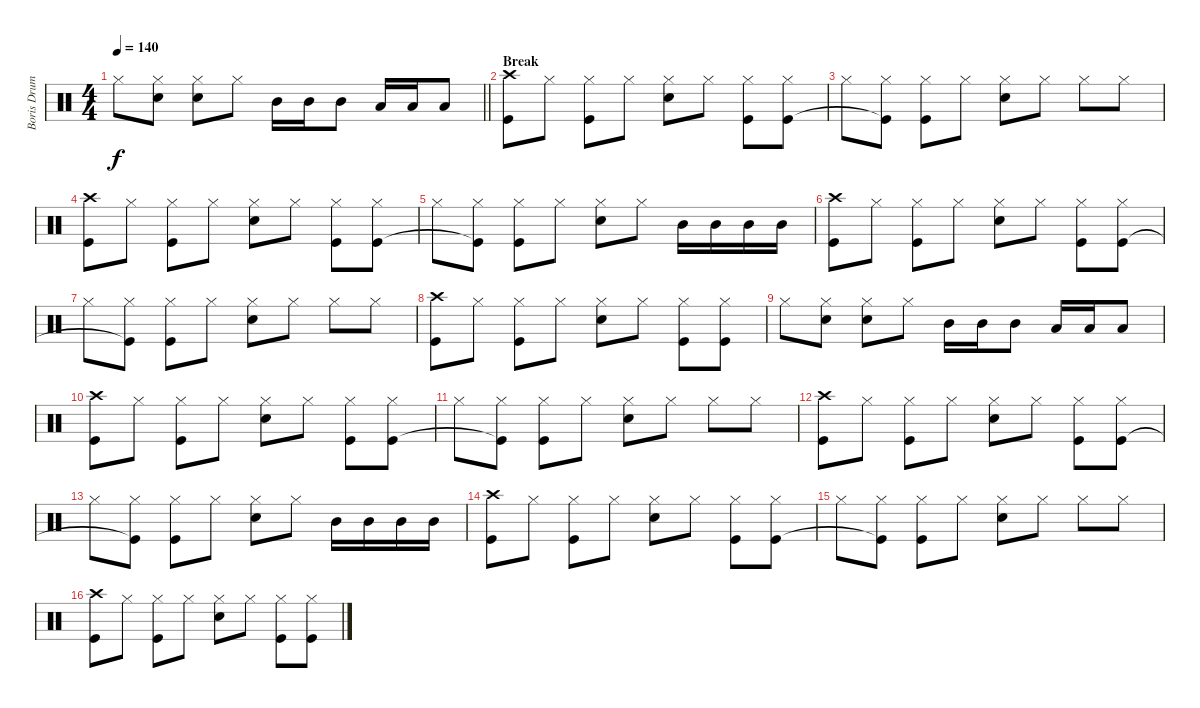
\track ("Boris Drums" "Boris Drum") {instrument percussion}
\staff {score}
\articulation defaults
\ts (4 4)
\tempo 140
\clef neutral
\barLineRight lightlight
\ks c "Hi-Hat (closed)".8{dy f}
("Hi-Hat (closed)" "Electric Snare (hit)").8 ("Hi-Hat (closed)" "Electric Snare (hit)").8 "Hi-Hat (closed)".8 "Mid Tom (hit)".16 "Mid Tom (hit)".16 "Mid Tom (hit)".8 "Low Tom (hit)".16 "Low Tom (hit)".16 "Low Tom (hit)".8 |
\section ("" "Break")
("Crash high (hit)" "Kick (hit)").8 "Hi-Hat (closed)".8 ("Hi-Hat (closed)" "Kick (hit)").8 "Hi-Hat (closed)".8 ("Hi-Hat (closed)" "Electric Snare (hit)").8 "Hi-Hat (closed)".8 ("Hi-Hat (closed)" "Kick (hit)").8 ("Hi-Hat (closed)" "Kick (hit)").8 |
"Hi-Hat (closed)".8 ("Hi-Hat (closed)" "Kick (hit)"{t}).8 ("Hi-Hat (closed)" "Kick (hit)").8 "Hi-Hat (closed)".8 ("Hi-Hat (closed)" "Electric Snare (hit)").8 "Hi-Hat (closed)".8 "Hi-Hat (closed)".8 "Hi-Hat (closed)".8 |
("Crash high (hit)" "Kick (hit)").8 "Hi-Hat (closed)".8 ("Hi-Hat (closed)" "Kick (hit)").8 "Hi-Hat (closed)".8 ("Hi-Hat (closed)" "Electric Snare (hit)").8 "Hi-Hat (closed)".8 ("Hi-Hat (closed)" "Kick (hit)").8 ("Hi-Hat (closed)" "Kick (hit)").8 |
"Hi-Hat (closed)".8 ("Hi-Hat (closed)" "Kick (hit)"{t}).8 ("Hi-Hat (closed)" "Kick (hit)").8 "Hi-Hat (closed)".8 ("Hi-Hat (closed)" "Electric Snare (hit)").8 "Hi-Hat (closed)".8 "Mid Tom (hit)".16 "Mid Tom (hit)".16 "Mid Tom (hit)".16 "Mid Tom (hit)".16 |
("Crash high (hit)" "Kick (hit)").8 "Hi-Hat (closed)".8 ("Hi-Hat (closed)" "Kick (hit)").8 "Hi-Hat (closed)".8 ("Hi-Hat (closed)" "Electric Snare (hit)").8 "Hi-Hat (closed)".8 ("Hi-Hat (closed)" "Kick (hit)").8 ("Hi-Hat (closed)" "Kick (hit)").8 |
"Hi-Hat (closed)".8 ("Hi-Hat (closed)" "Kick (hit)"{t}).8 ("Hi-Hat (closed)" "Kick (hit)").8 "Hi-Hat (closed)".8 ("Hi-Hat (closed)" "Electric Snare (hit)").8 "Hi-Hat (closed)".8 "Hi-Hat (closed)".8 "Hi-Hat (closed)".8 |
("Crash high (hit)" "Kick (hit)").8 "Hi-Hat (closed)".8 ("Hi-Hat (closed)" "Kick (hit)").8 "Hi-Hat (closed)".8 ("Hi-Hat (closed)" "Electric Snare (hit)").8 "Hi-Hat (closed)".8 ("Hi-Hat (closed)" "Kick (hit)").8 ("Hi-Hat (closed)" "Kick (hit)").8 |
"Hi-Hat (closed)".8 ("Hi-Hat (closed)" "Electric Snare (hit)").8 ("Hi-Hat (closed)" "Electric Snare (hit)").8 "Hi-Hat (closed)".8 "Mid Tom (hit)".16 "Mid Tom (hit)".16 "Mid Tom (hit)".8 "Low Tom (hit)".16 "Low Tom (hit)".16 "Low Tom (hit)".8 |
("Crash high (hit)" "Kick (hit)").8 "Hi-Hat (closed)".8 ("Hi-Hat (closed)" "Kick (hit)").8 "Hi-Hat (closed)".8 ("Hi-Hat (closed)" "Electric Snare (hit)").8 "Hi-Hat (closed)".8 ("Hi-Hat (closed)" "Kick (hit)").8 ("Hi-Hat (closed)" "Kick (hit)").8 |
"Hi-Hat (closed)".8 ("Hi-Hat (closed)" "Kick (hit)"{t}).8 ("Hi-Hat (closed)" "Kick (hit)").8 "Hi-Hat (closed)".8 ("Hi-Hat (closed)" "Electric Snare (hit)").8 "Hi-Hat (closed)".8 "Hi-Hat (closed)".8 "Hi-Hat (closed)".8 |
("Crash high (hit)" "Kick (hit)").8 "Hi-Hat (closed)".8 ("Hi-Hat (closed)" "Kick (hit)").8 "Hi-Hat (closed)".8 ("Hi-Hat (closed)" "Electric Snare (hit)").8 "Hi-Hat (closed)".8 ("Hi-Hat (closed)" "Kick (hit)").8 ("Hi-Hat (closed)" "Kick (hit)").8 |
"Hi-Hat (closed)".8 ("Hi-Hat (closed)" "Kick (hit)"{t}).8 ("Hi-Hat (closed)" "Kick (hit)").8 "Hi-Hat (closed)".8 ("Hi-Hat (closed)" "Electric Snare (hit)").8 "Hi-Hat (closed)".8 "Mid Tom (hit)".16 "Mid Tom (hit)".16 "Mid Tom (hit)".16 "Mid Tom (hit)".16 |
("Crash high (hit)" "Kick (hit)").8 "Hi-Hat (closed)".8 ("Hi-Hat (closed)" "Kick (hit)").8 "Hi-Hat (closed)".8 ("Hi-Hat (closed)" "Electric Snare (hit)").8 "Hi-Hat (closed)".8 ("Hi-Hat (closed)" "Kick (hit)").8 ("Hi-Hat (closed)" "Kick (hit)").8 |
"Hi-Hat (closed)".8 ("Hi-Hat (closed)" "Kick (hit)"{t}).8 ("Hi-Hat (closed)" "Kick (hit)").8 "Hi-Hat (closed)".8 ("Hi-Hat (closed)" "Electric Snare (hit)").8 "Hi-Hat (closed)".8 "Hi-Hat (closed)".8 "Hi-Hat (closed)".8 |
("Crash high (hit)" "Kick (hit)").8 "Hi-Hat (closed)".8 ("Hi-Hat (closed)" "Kick (hit)").8 "Hi-Hat (closed)".8 ("Hi-Hat (closed)" "Electric Snare (hit)").8 "Hi-Hat (closed)".8 ("Hi-Hat (closed)" "Kick (hit)").8 ("Hi-Hat (closed)" "Kick (hit)").8
